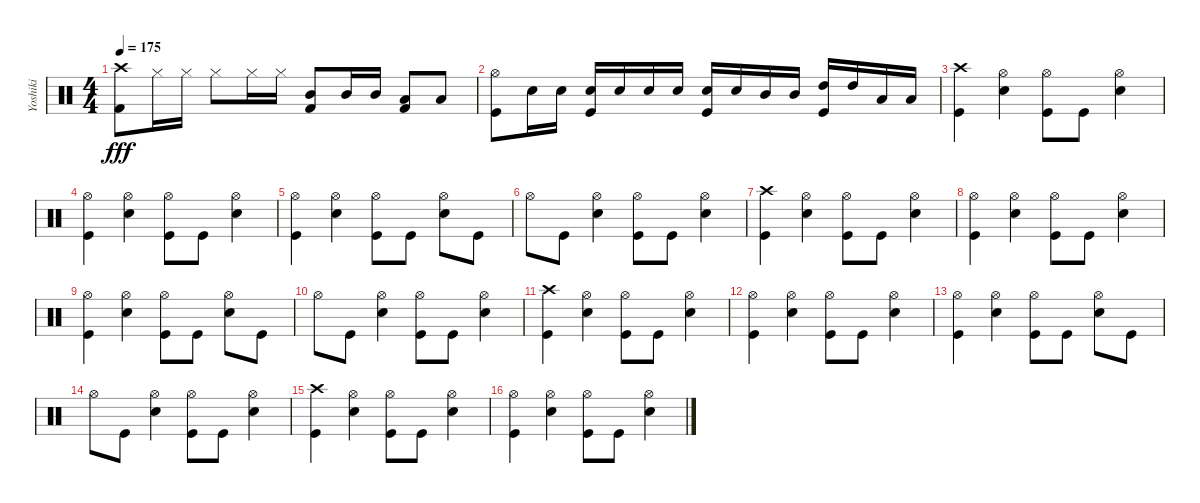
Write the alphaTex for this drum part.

\track ("Yoshiki" "Yoshiki") {instrument percussion}
\staff {score}
\articulation defaults
\ts (4 4)
\tempo 175
\clef neutral
\ks c
("Crash high (hit)" "Kick (hit) 2").8{dy fff} "Hi-Hat (closed)".16 "Hi-Hat (closed)".16 "Hi-Hat (closed)".8 "Hi-Hat (closed)".16 "Hi-Hat (closed)".16 ("Mid Tom (hit)" "Kick (hit) 2").8 "Mid Tom (hit)".16 "Mid Tom (hit)".16 ("Low Tom (hit)" "Kick (hit) 2").8 "Low Tom (hit)".8 |
("Hi-Hat (open)" "Kick (hit)").8 "Snare (hit) 2".16 "Snare (hit) 2".16 ("Snare (hit) 2" "Kick (hit)").16 "Snare (hit) 2".16 "Snare (hit) 2".16 "Snare (hit) 2".16 ("Snare (hit) 2" "Kick (hit)").16 "Snare (hit) 2".16 "Mid Tom (hit)".16 "Mid Tom (hit)".16 ("High Tom (hit)" "Kick (hit)").16 "High Tom (hit)".16 "Low Tom (hit)".16 "Low Tom (hit)".16 |
("Crash high (hit)" "Kick (hit)").4 ("Hi-Hat (open)" "Snare (hit) 2").4 ("Hi-Hat (open)" "Kick (hit)").8 "Kick (hit)".8 ("Hi-Hat (open)" "Snare (hit) 2").4 |
("Hi-Hat (open)" "Kick (hit)").4 ("Hi-Hat (open)" "Snare (hit) 2").4 ("Hi-Hat (open)" "Kick (hit)").8 "Kick (hit)".8 ("Hi-Hat (open)" "Snare (hit) 2").4 |
("Hi-Hat (open)" "Kick (hit)").4 ("Hi-Hat (open)" "Snare (hit) 2").4 ("Hi-Hat (open)" "Kick (hit)").8 "Kick (hit)".8 ("Hi-Hat (open)" "Snare (hit) 2").8 "Kick (hit)".8 |
"Hi-Hat (open)".8 "Kick (hit)".8 ("Hi-Hat (open)" "Snare (hit) 2").4 ("Hi-Hat (open)" "Kick (hit)").8 "Kick (hit)".8 ("Hi-Hat (open)" "Snare (hit) 2").4 |
("Crash high (hit)" "Kick (hit)").4 ("Hi-Hat (open)" "Snare (hit) 2").4 ("Hi-Hat (open)" "Kick (hit)").8 "Kick (hit)".8 ("Hi-Hat (open)" "Snare (hit) 2").4 |
("Hi-Hat (open)" "Kick (hit)").4 ("Hi-Hat (open)" "Snare (hit) 2").4 ("Hi-Hat (open)" "Kick (hit)").8 "Kick (hit)".8 ("Hi-Hat (open)" "Snare (hit) 2").4 |
("Hi-Hat (open)" "Kick (hit)").4 ("Hi-Hat (open)" "Snare (hit) 2").4 ("Hi-Hat (open)" "Kick (hit)").8 "Kick (hit)".8 ("Hi-Hat (open)" "Snare (hit) 2").8 "Kick (hit)".8 |
"Hi-Hat (open)".8 "Kick (hit)".8 ("Hi-Hat (open)" "Snare (hit) 2").4 ("Hi-Hat (open)" "Kick (hit)").8 "Kick (hit)".8 ("Hi-Hat (open)" "Snare (hit) 2").4 |
("Crash high (hit)" "Kick (hit)").4 ("Hi-Hat (open)" "Snare (hit) 2").4 ("Hi-Hat (open)" "Kick (hit)").8 "Kick (hit)".8 ("Hi-Hat (open)" "Snare (hit) 2").4 |
("Hi-Hat (open)" "Kick (hit)").4 ("Hi-Hat (open)" "Snare (hit) 2").4 ("Hi-Hat (open)" "Kick (hit)").8 "Kick (hit)".8 ("Hi-Hat (open)" "Snare (hit) 2").4 |
("Hi-Hat (open)" "Kick (hit)").4 ("Hi-Hat (open)" "Snare (hit) 2").4 ("Hi-Hat (open)" "Kick (hit)").8 "Kick (hit)".8 ("Hi-Hat (open)" "Snare (hit) 2").8 "Kick (hit)".8 |
"Hi-Hat (open)".8 "Kick (hit)".8 ("Hi-Hat (open)" "Snare (hit) 2").4 ("Hi-Hat (open)" "Kick (hit)").8 "Kick (hit)".8 ("Hi-Hat (open)" "Snare (hit) 2").4 |
("Crash high (hit)" "Kick (hit)").4 ("Hi-Hat (open)" "Snare (hit) 2").4 ("Hi-Hat (open)" "Kick (hit)").8 "Kick (hit)".8 ("Hi-Hat (open)" "Snare (hit) 2").4 |
("Hi-Hat (open)" "Kick (hit)").4 ("Hi-Hat (open)" "Snare (hit) 2").4 ("Hi-Hat (open)" "Kick (hit)").8 "Kick (hit)".8 ("Hi-Hat (open)" "Snare (hit) 2").4
